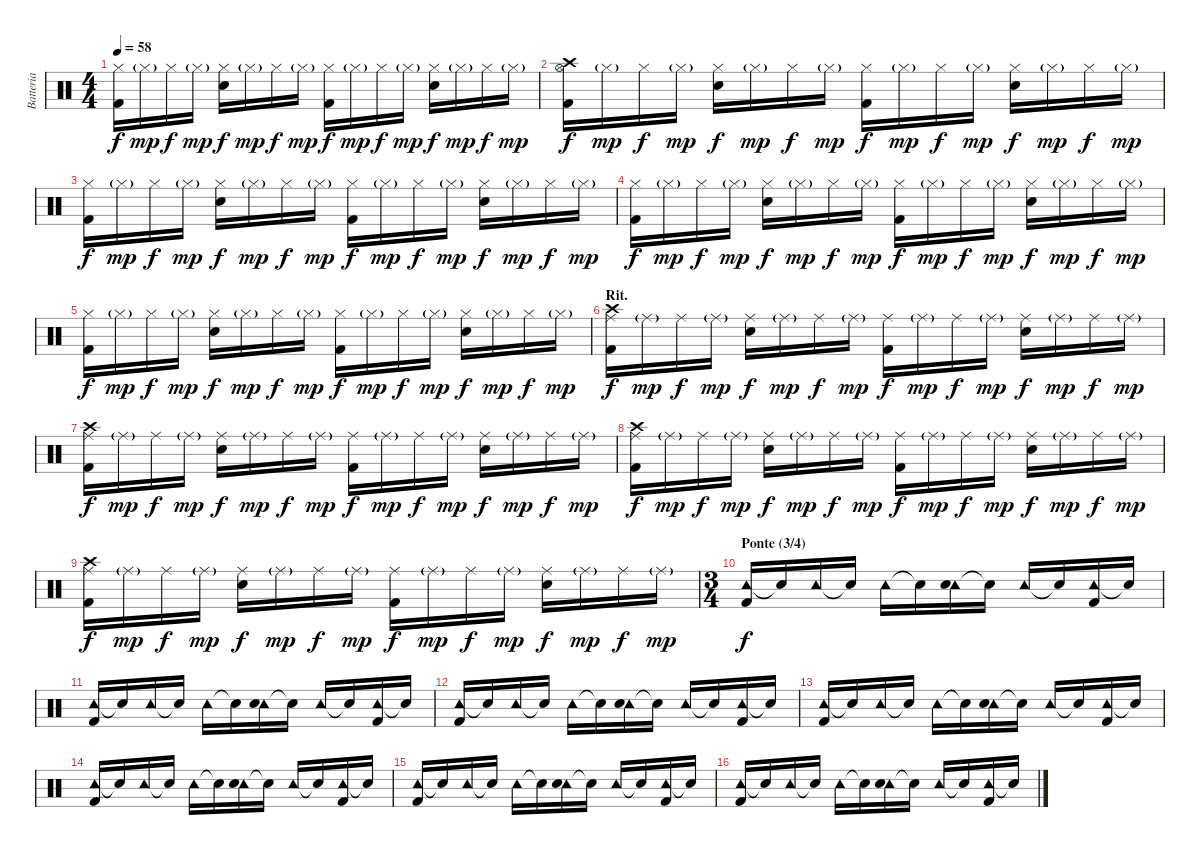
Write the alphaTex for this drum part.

\track ("Batteria" "Batteria") {instrument percussion}
\staff {score}
\articulation defaults
\ts (4 4)
\tempo 58
\clef neutral
\ks c
("Hi-Hat (closed)" "Kick (hit) 2").16{dy f} "Hi-Hat (closed)"{g}.16{dy mp} "Hi-Hat (closed)".16{dy f} "Hi-Hat (closed)"{g}.16{dy mp} ("Hi-Hat (closed)" "Electric Snare (hit)").16{dy f} "Hi-Hat (closed)"{g}.16{dy mp} "Hi-Hat (closed)".16{dy f} "Hi-Hat (closed)"{g}.16{dy mp} ("Hi-Hat (closed)" "Kick (hit) 2").16{dy f} "Hi-Hat (closed)"{g}.16{dy mp} "Hi-Hat (closed)".16{dy f} "Hi-Hat (closed)"{g}.16{dy mp} ("Hi-Hat (closed)" "Electric Snare (hit)").16{dy f} "Hi-Hat (closed)"{g}.16{dy mp} "Hi-Hat (closed)".16{dy f} "Hi-Hat (closed)"{g}.16{dy mp} |
("Hi-Hat (open)" "Crash high (hit)" "Kick (hit) 2").16{dy f} "Hi-Hat (closed)"{g}.16{dy mp} "Hi-Hat (closed)".16{dy f} "Hi-Hat (closed)"{g}.16{dy mp} ("Hi-Hat (closed)" "Electric Snare (hit)").16{dy f} "Hi-Hat (closed)"{g}.16{dy mp} "Hi-Hat (closed)".16{dy f} "Hi-Hat (closed)"{g}.16{dy mp} ("Hi-Hat (closed)" "Kick (hit) 2").16{dy f} "Hi-Hat (closed)"{g}.16{dy mp} "Hi-Hat (closed)".16{dy f} "Hi-Hat (closed)"{g}.16{dy mp} ("Hi-Hat (closed)" "Electric Snare (hit)").16{dy f} "Hi-Hat (closed)"{g}.16{dy mp} "Hi-Hat (closed)".16{dy f} "Hi-Hat (closed)"{g}.16{dy mp} |
("Hi-Hat (closed)" "Kick (hit) 2").16{dy f} "Hi-Hat (closed)"{g}.16{dy mp} "Hi-Hat (closed)".16{dy f} "Hi-Hat (closed)"{g}.16{dy mp} ("Hi-Hat (closed)" "Electric Snare (hit)").16{dy f} "Hi-Hat (closed)"{g}.16{dy mp} "Hi-Hat (closed)".16{dy f} "Hi-Hat (closed)"{g}.16{dy mp} ("Hi-Hat (closed)" "Kick (hit) 2").16{dy f} "Hi-Hat (closed)"{g}.16{dy mp} "Hi-Hat (closed)".16{dy f} "Hi-Hat (closed)"{g}.16{dy mp} ("Hi-Hat (closed)" "Electric Snare (hit)").16{dy f} "Hi-Hat (closed)"{g}.16{dy mp} "Hi-Hat (closed)".16{dy f} "Hi-Hat (closed)"{g}.16{dy mp} |
("Hi-Hat (closed)" "Kick (hit) 2").16{dy f} "Hi-Hat (closed)"{g}.16{dy mp} "Hi-Hat (closed)".16{dy f} "Hi-Hat (closed)"{g}.16{dy mp} ("Hi-Hat (closed)" "Electric Snare (hit)").16{dy f} "Hi-Hat (closed)"{g}.16{dy mp} "Hi-Hat (closed)".16{dy f} "Hi-Hat (closed)"{g}.16{dy mp} ("Hi-Hat (closed)" "Kick (hit) 2").16{dy f} "Hi-Hat (closed)"{g}.16{dy mp} "Hi-Hat (closed)".16{dy f} "Hi-Hat (closed)"{g}.16{dy mp} ("Hi-Hat (closed)" "Electric Snare (hit)").16{dy f} "Hi-Hat (closed)"{g}.16{dy mp} "Hi-Hat (closed)".16{dy f} "Hi-Hat (closed)"{g}.16{dy mp} |
("Hi-Hat (closed)" "Kick (hit) 2").16{dy f} "Hi-Hat (closed)"{g}.16{dy mp} "Hi-Hat (closed)".16{dy f} "Hi-Hat (closed)"{g}.16{dy mp} ("Hi-Hat (closed)" "Electric Snare (hit)").16{dy f} "Hi-Hat (closed)"{g}.16{dy mp} "Hi-Hat (closed)".16{dy f} "Hi-Hat (closed)"{g}.16{dy mp} ("Hi-Hat (closed)" "Kick (hit) 2").16{dy f} "Hi-Hat (closed)"{g}.16{dy mp} "Hi-Hat (closed)".16{dy f} "Hi-Hat (closed)"{g}.16{dy mp} ("Hi-Hat (closed)" "Electric Snare (hit)").16{dy f} "Hi-Hat (closed)"{g}.16{dy mp} "Hi-Hat (closed)".16{dy f} "Hi-Hat (closed)"{g}.16{dy mp} |
\section ("" "Rit.")
("Ride (middle)" "Crash high (hit)" "Kick (hit) 2").16{dy f} "Ride (middle)"{g}.16{dy mp} "Ride (middle)".16{dy f} "Ride (middle)"{g}.16{dy mp} ("Ride (middle)" "Electric Snare (hit)").16{dy f} "Ride (middle)"{g}.16{dy mp} "Ride (middle)".16{dy f} "Ride (middle)"{g}.16{dy mp} ("Ride (middle)" "Kick (hit) 2").16{dy f} "Ride (middle)"{g}.16{dy mp} "Ride (middle)".16{dy f} "Ride (middle)"{g}.16{dy mp} ("Ride (middle)" "Electric Snare (hit)").16{dy f} "Ride (middle)"{g}.16{dy mp} "Ride (middle)".16{dy f} "Ride (middle)"{g}.16{dy mp} |
("Ride (middle)" "Crash high (hit)" "Kick (hit) 2").16{dy f} "Ride (middle)"{g}.16{dy mp} "Ride (middle)".16{dy f} "Ride (middle)"{g}.16{dy mp} ("Ride (middle)" "Electric Snare (hit)").16{dy f} "Ride (middle)"{g}.16{dy mp} "Ride (middle)".16{dy f} "Ride (middle)"{g}.16{dy mp} ("Ride (middle)" "Kick (hit) 2").16{dy f} "Ride (middle)"{g}.16{dy mp} "Ride (middle)".16{dy f} "Ride (middle)"{g}.16{dy mp} ("Ride (middle)" "Electric Snare (hit)").16{dy f} "Ride (middle)"{g}.16{dy mp} "Ride (middle)".16{dy f} "Ride (middle)"{g}.16{dy mp} |
("Ride (middle)" "Crash high (hit)" "Kick (hit) 2").16{dy f} "Ride (middle)"{g}.16{dy mp} "Ride (middle)".16{dy f} "Ride (middle)"{g}.16{dy mp} ("Ride (middle)" "Electric Snare (hit)").16{dy f} "Ride (middle)"{g}.16{dy mp} "Ride (middle)".16{dy f} "Ride (middle)"{g}.16{dy mp} ("Ride (middle)" "Kick (hit) 2").16{dy f} "Ride (middle)"{g}.16{dy mp} "Ride (middle)".16{dy f} "Ride (middle)"{g}.16{dy mp} ("Ride (middle)" "Electric Snare (hit)").16{dy f} "Ride (middle)"{g}.16{dy mp} "Ride (middle)".16{dy f} "Ride (middle)"{g}.16{dy mp} |
("Ride (middle)" "Crash high (hit)" "Kick (hit) 2").16{dy f} "Ride (middle)"{g}.16{dy mp} "Ride (middle)".16{dy f} "Ride (middle)"{g}.16{dy mp} ("Ride (middle)" "Electric Snare (hit)").16{dy f} "Ride (middle)"{g}.16{dy mp} "Ride (middle)".16{dy f} "Ride (middle)"{g}.16{dy mp} ("Ride (middle)" "Kick (hit) 2").16{dy f} "Ride (middle)"{g}.16{dy mp} "Ride (middle)".16{dy f} "Ride (middle)"{g}.16{dy mp} ("Ride (middle)" "Electric Snare (hit)").16{dy f} "Ride (middle)"{g}.16{dy mp} "Ride (middle)".16{dy f} "Ride (middle)"{g}.16{dy mp} |
\ts (3 4)
\section ("" "Ponte (3/4)")
("Tambourine (hit)" "Kick (hit) 2").16{dy f} "Snare (hit)"{t}.16 "Tambourine (hit)".16 "Snare (hit)"{t}.16 "Tambourine (hit)".16 "Snare (hit)"{t}.16 ("Tambourine (hit)" "Electric Snare (hit)").16 "Snare (hit)"{t}.16 "Tambourine (hit)".16 "Snare (hit)"{t}.16 ("Tambourine (hit)" "Kick (hit) 2").16 "Snare (hit)"{t}.16 |
("Tambourine (hit)" "Kick (hit) 2").16 "Snare (hit)"{t}.16 "Tambourine (hit)".16 "Snare (hit)"{t}.16 "Tambourine (hit)".16 "Snare (hit)"{t}.16 ("Tambourine (hit)" "Electric Snare (hit)").16 "Snare (hit)"{t}.16 "Tambourine (hit)".16 "Snare (hit)"{t}.16 ("Tambourine (hit)" "Kick (hit) 2").16 "Snare (hit)"{t}.16 |
("Tambourine (hit)" "Kick (hit) 2").16 "Snare (hit)"{t}.16 "Tambourine (hit)".16 "Snare (hit)"{t}.16 "Tambourine (hit)".16 "Snare (hit)"{t}.16 ("Tambourine (hit)" "Electric Snare (hit)").16 "Snare (hit)"{t}.16 "Tambourine (hit)".16 "Snare (hit)"{t}.16 ("Tambourine (hit)" "Kick (hit) 2").16 "Snare (hit)"{t}.16 |
("Tambourine (hit)" "Kick (hit) 2").16 "Snare (hit)"{t}.16 "Tambourine (hit)".16 "Snare (hit)"{t}.16 "Tambourine (hit)".16 "Snare (hit)"{t}.16 ("Tambourine (hit)" "Electric Snare (hit)").16 "Snare (hit)"{t}.16 "Tambourine (hit)".16 "Snare (hit)"{t}.16 ("Tambourine (hit)" "Kick (hit) 2").16 "Snare (hit)"{t}.16 |
("Tambourine (hit)" "Kick (hit) 2").16 "Snare (hit)"{t}.16 "Tambourine (hit)".16 "Snare (hit)"{t}.16 "Tambourine (hit)".16 "Snare (hit)"{t}.16 ("Tambourine (hit)" "Electric Snare (hit)").16 "Snare (hit)"{t}.16 "Tambourine (hit)".16 "Snare (hit)"{t}.16 ("Tambourine (hit)" "Kick (hit) 2").16 "Snare (hit)"{t}.16 |
("Tambourine (hit)" "Kick (hit) 2").16 "Snare (hit)"{t}.16 "Tambourine (hit)".16 "Snare (hit)"{t}.16 "Tambourine (hit)".16 "Snare (hit)"{t}.16 ("Tambourine (hit)" "Electric Snare (hit)").16 "Snare (hit)"{t}.16 "Tambourine (hit)".16 "Snare (hit)"{t}.16 ("Tambourine (hit)" "Kick (hit) 2").16 "Snare (hit)"{t}.16 |
("Tambourine (hit)" "Kick (hit) 2").16 "Snare (hit)"{t}.16 "Tambourine (hit)".16 "Snare (hit)"{t}.16 "Tambourine (hit)".16 "Snare (hit)"{t}.16 ("Tambourine (hit)" "Electric Snare (hit)").16 "Snare (hit)"{t}.16 "Tambourine (hit)".16 "Snare (hit)"{t}.16 ("Tambourine (hit)" "Kick (hit) 2").16 "Snare (hit)"{t}.16
